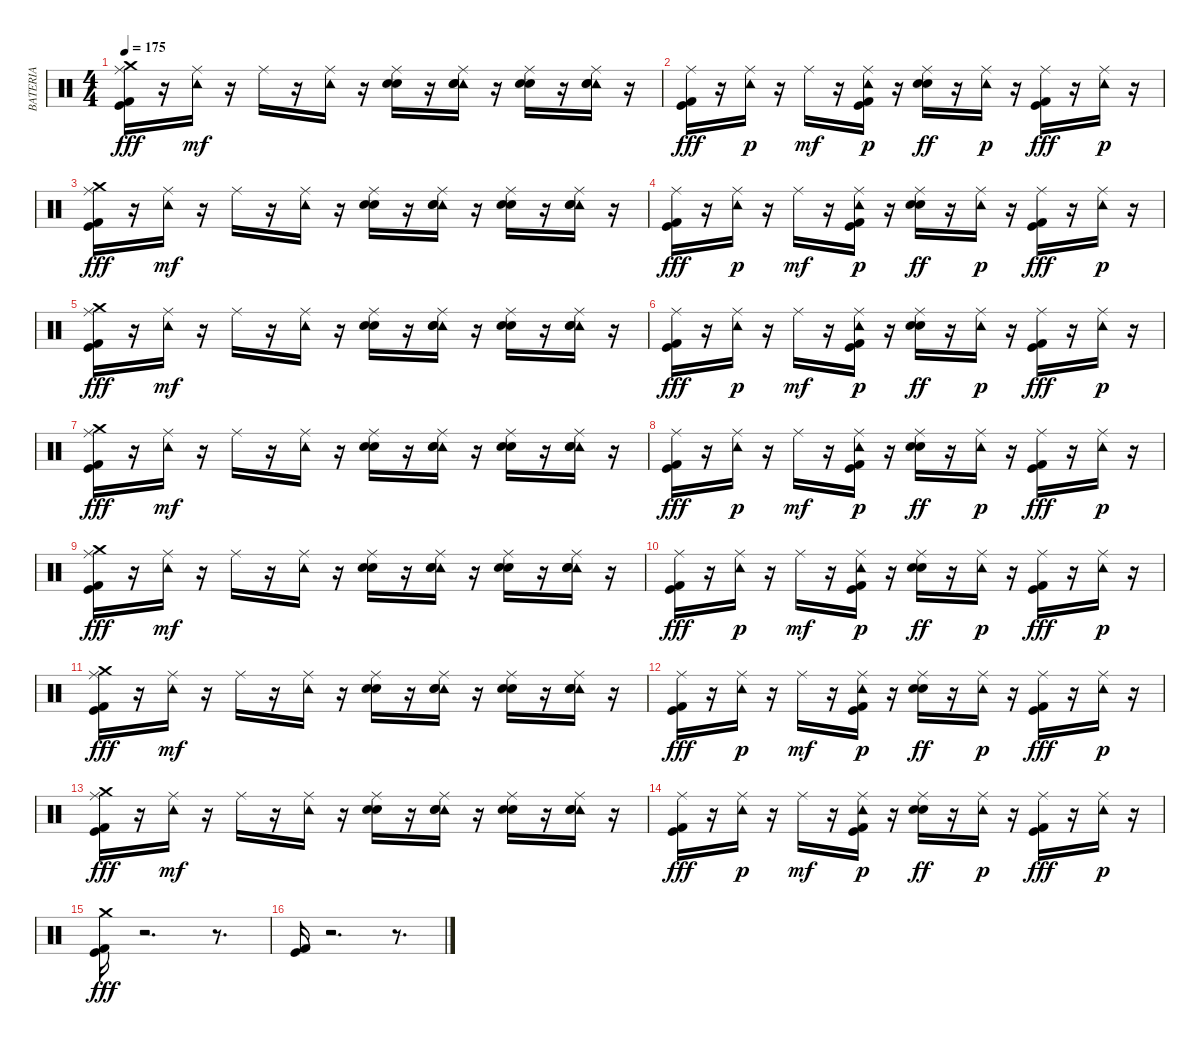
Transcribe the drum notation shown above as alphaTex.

\track ("BATERIA" "BATERIA") {instrument percussion}
\staff {score}
\articulation defaults
\ts (4 4)
\tempo 175
\clef neutral
\ks c
("Ride (middle)" "Crash medium (hit)" "Kick (hit)" "Kick (hit) 2").16{dy fff} r.16 ("Tambourine (hit)" "Ride (middle)").16{dy mf} r.16 "Ride (middle)".16 r.16 ("Tambourine (hit)" "Ride (middle)").16 r.16 ("Electric Snare (hit)" "Snare (hit) 2" "Ride (middle)").16 r.16 ("Tambourine (hit)" "Electric Snare (hit)" "Snare (hit) 2" "Ride (middle)").16 r.16 ("Electric Snare (hit)" "Snare (hit) 2" "Ride (middle)").16 r.16 ("Tambourine (hit)" "Electric Snare (hit)" "Snare (hit) 2" "Ride (middle)").16 r.16 |
("Ride (middle)" "Kick (hit)" "Kick (hit) 2").16{dy fff} r.16 ("Ride (middle)" "Tambourine (hit)").16{dy p} r.16 "Ride (middle)".16{dy mf} r.16 ("Ride (middle)" "Kick (hit)" "Kick (hit) 2" "Tambourine (hit)").16{dy p} r.16 ("Ride (middle)" "Snare (hit) 2" "Electric Snare (hit)").16{dy ff} r.16 ("Ride (middle)" "Tambourine (hit)").16{dy p} r.16 ("Ride (middle)" "Kick (hit)" "Kick (hit) 2").16{dy fff} r.16 ("Ride (middle)" "Tambourine (hit)").16{dy p} r.16 |
("Ride (middle)" "Crash medium (hit)" "Kick (hit)" "Kick (hit) 2").16{dy fff} r.16 ("Tambourine (hit)" "Ride (middle)").16{dy mf} r.16 "Ride (middle)".16 r.16 ("Tambourine (hit)" "Ride (middle)").16 r.16 ("Electric Snare (hit)" "Snare (hit) 2" "Ride (middle)").16 r.16 ("Tambourine (hit)" "Electric Snare (hit)" "Snare (hit) 2" "Ride (middle)").16 r.16 ("Electric Snare (hit)" "Snare (hit) 2" "Ride (middle)").16 r.16 ("Tambourine (hit)" "Electric Snare (hit)" "Snare (hit) 2" "Ride (middle)").16 r.16 |
("Ride (middle)" "Kick (hit)" "Kick (hit) 2").16{dy fff} r.16 ("Ride (middle)" "Tambourine (hit)").16{dy p} r.16 "Ride (middle)".16{dy mf} r.16 ("Ride (middle)" "Kick (hit)" "Kick (hit) 2" "Tambourine (hit)").16{dy p} r.16 ("Ride (middle)" "Snare (hit) 2" "Electric Snare (hit)").16{dy ff} r.16 ("Ride (middle)" "Tambourine (hit)").16{dy p} r.16 ("Ride (middle)" "Kick (hit)" "Kick (hit) 2").16{dy fff} r.16 ("Ride (middle)" "Tambourine (hit)").16{dy p} r.16 |
("Ride (middle)" "Crash medium (hit)" "Kick (hit)" "Kick (hit) 2").16{dy fff} r.16 ("Tambourine (hit)" "Ride (middle)").16{dy mf} r.16 "Ride (middle)".16 r.16 ("Tambourine (hit)" "Ride (middle)").16 r.16 ("Electric Snare (hit)" "Snare (hit) 2" "Ride (middle)").16 r.16 ("Tambourine (hit)" "Electric Snare (hit)" "Snare (hit) 2" "Ride (middle)").16 r.16 ("Electric Snare (hit)" "Snare (hit) 2" "Ride (middle)").16 r.16 ("Tambourine (hit)" "Electric Snare (hit)" "Snare (hit) 2" "Ride (middle)").16 r.16 |
("Ride (middle)" "Kick (hit)" "Kick (hit) 2").16{dy fff} r.16 ("Ride (middle)" "Tambourine (hit)").16{dy p} r.16 "Ride (middle)".16{dy mf} r.16 ("Ride (middle)" "Kick (hit)" "Kick (hit) 2" "Tambourine (hit)").16{dy p} r.16 ("Ride (middle)" "Snare (hit) 2" "Electric Snare (hit)").16{dy ff} r.16 ("Ride (middle)" "Tambourine (hit)").16{dy p} r.16 ("Ride (middle)" "Kick (hit)" "Kick (hit) 2").16{dy fff} r.16 ("Ride (middle)" "Tambourine (hit)").16{dy p} r.16 |
("Ride (middle)" "Crash medium (hit)" "Kick (hit)" "Kick (hit) 2").16{dy fff} r.16 ("Tambourine (hit)" "Ride (middle)").16{dy mf} r.16 "Ride (middle)".16 r.16 ("Tambourine (hit)" "Ride (middle)").16 r.16 ("Electric Snare (hit)" "Snare (hit) 2" "Ride (middle)").16 r.16 ("Tambourine (hit)" "Electric Snare (hit)" "Snare (hit) 2" "Ride (middle)").16 r.16 ("Electric Snare (hit)" "Snare (hit) 2" "Ride (middle)").16 r.16 ("Tambourine (hit)" "Electric Snare (hit)" "Snare (hit) 2" "Ride (middle)").16 r.16 |
("Ride (middle)" "Kick (hit)" "Kick (hit) 2").16{dy fff} r.16 ("Ride (middle)" "Tambourine (hit)").16{dy p} r.16 "Ride (middle)".16{dy mf} r.16 ("Ride (middle)" "Kick (hit)" "Kick (hit) 2" "Tambourine (hit)").16{dy p} r.16 ("Ride (middle)" "Snare (hit) 2" "Electric Snare (hit)").16{dy ff} r.16 ("Ride (middle)" "Tambourine (hit)").16{dy p} r.16 ("Ride (middle)" "Kick (hit)" "Kick (hit) 2").16{dy fff} r.16 ("Ride (middle)" "Tambourine (hit)").16{dy p} r.16 |
("Ride (middle)" "Crash medium (hit)" "Kick (hit)" "Kick (hit) 2").16{dy fff} r.16 ("Tambourine (hit)" "Ride (middle)").16{dy mf} r.16 "Ride (middle)".16 r.16 ("Tambourine (hit)" "Ride (middle)").16 r.16 ("Electric Snare (hit)" "Snare (hit) 2" "Ride (middle)").16 r.16 ("Tambourine (hit)" "Electric Snare (hit)" "Snare (hit) 2" "Ride (middle)").16 r.16 ("Electric Snare (hit)" "Snare (hit) 2" "Ride (middle)").16 r.16 ("Tambourine (hit)" "Electric Snare (hit)" "Snare (hit) 2" "Ride (middle)").16 r.16 |
("Ride (middle)" "Kick (hit)" "Kick (hit) 2").16{dy fff} r.16 ("Ride (middle)" "Tambourine (hit)").16{dy p} r.16 "Ride (middle)".16{dy mf} r.16 ("Ride (middle)" "Kick (hit)" "Kick (hit) 2" "Tambourine (hit)").16{dy p} r.16 ("Ride (middle)" "Snare (hit) 2" "Electric Snare (hit)").16{dy ff} r.16 ("Ride (middle)" "Tambourine (hit)").16{dy p} r.16 ("Ride (middle)" "Kick (hit)" "Kick (hit) 2").16{dy fff} r.16 ("Ride (middle)" "Tambourine (hit)").16{dy p} r.16 |
("Ride (middle)" "Crash medium (hit)" "Kick (hit)" "Kick (hit) 2").16{dy fff} r.16 ("Tambourine (hit)" "Ride (middle)").16{dy mf} r.16 "Ride (middle)".16 r.16 ("Tambourine (hit)" "Ride (middle)").16 r.16 ("Electric Snare (hit)" "Snare (hit) 2" "Ride (middle)").16 r.16 ("Tambourine (hit)" "Electric Snare (hit)" "Snare (hit) 2" "Ride (middle)").16 r.16 ("Electric Snare (hit)" "Snare (hit) 2" "Ride (middle)").16 r.16 ("Tambourine (hit)" "Electric Snare (hit)" "Snare (hit) 2" "Ride (middle)").16 r.16 |
("Ride (middle)" "Kick (hit)" "Kick (hit) 2").16{dy fff} r.16 ("Ride (middle)" "Tambourine (hit)").16{dy p} r.16 "Ride (middle)".16{dy mf} r.16 ("Ride (middle)" "Kick (hit)" "Kick (hit) 2" "Tambourine (hit)").16{dy p} r.16 ("Ride (middle)" "Snare (hit) 2" "Electric Snare (hit)").16{dy ff} r.16 ("Ride (middle)" "Tambourine (hit)").16{dy p} r.16 ("Ride (middle)" "Kick (hit)" "Kick (hit) 2").16{dy fff} r.16 ("Ride (middle)" "Tambourine (hit)").16{dy p} r.16 |
("Ride (middle)" "Crash medium (hit)" "Kick (hit)" "Kick (hit) 2").16{dy fff} r.16 ("Tambourine (hit)" "Ride (middle)").16{dy mf} r.16 "Ride (middle)".16 r.16 ("Tambourine (hit)" "Ride (middle)").16 r.16 ("Electric Snare (hit)" "Snare (hit) 2" "Ride (middle)").16 r.16 ("Tambourine (hit)" "Electric Snare (hit)" "Snare (hit) 2" "Ride (middle)").16 r.16 ("Electric Snare (hit)" "Snare (hit) 2" "Ride (middle)").16 r.16 ("Tambourine (hit)" "Electric Snare (hit)" "Snare (hit) 2" "Ride (middle)").16 r.16 |
("Ride (middle)" "Kick (hit)" "Kick (hit) 2").16{dy fff} r.16 ("Ride (middle)" "Tambourine (hit)").16{dy p} r.16 "Ride (middle)".16{dy mf} r.16 ("Ride (middle)" "Kick (hit)" "Kick (hit) 2" "Tambourine (hit)").16{dy p} r.16 ("Ride (middle)" "Snare (hit) 2" "Electric Snare (hit)").16{dy ff} r.16 ("Ride (middle)" "Tambourine (hit)").16{dy p} r.16 ("Ride (middle)" "Kick (hit)" "Kick (hit) 2").16{dy fff} r.16 ("Ride (middle)" "Tambourine (hit)").16{dy p} r.16 |
("Kick (hit) 2" "Kick (hit)" "Crash medium (hit)").16{dy fff} r.2{d} r.8{d} |
("Kick (hit) 2" "Kick (hit)").16 r.2{d} r.8{d}
